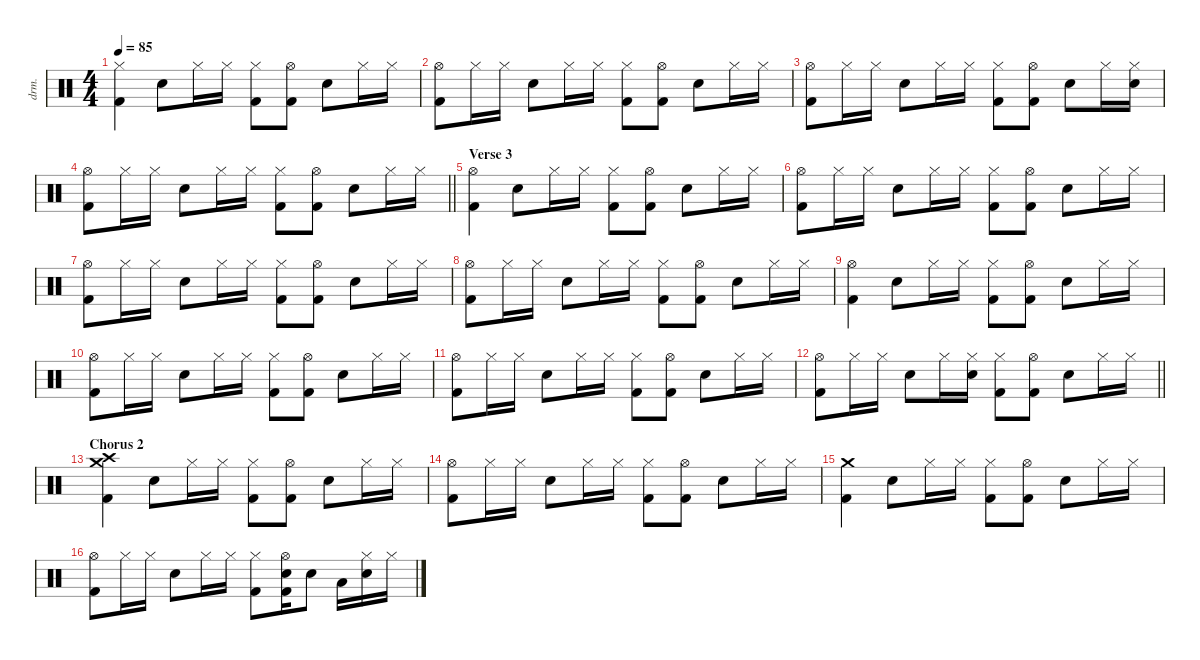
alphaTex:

\defaultSystemsLayout 4
\hideDynamics
\bracketExtendMode nobrackets
\otherSystemsTrackNameOrientation horizontal
\track ("Drums" "drm.") {defaultSystemsLayout 4 instrument percussion}
\staff {score}
\articulation defaults
\ts (4 4)
\tempo 85
\clef neutral
\ks c
("Hi-Hat (closed)" "Kick (hit) 2").4{dy f} "Snare (hit) 2".8 "Hi-Hat (closed)".16 "Hi-Hat (closed)".16 ("Hi-Hat (closed)" "Kick (hit) 2").8 ("Hi-Hat (open)" "Kick (hit) 2").8 "Snare (hit) 2".8 "Hi-Hat (closed)".16 "Hi-Hat (closed)".16 |
("Hi-Hat (open)" "Kick (hit) 2").8 "Hi-Hat (closed)".16 "Hi-Hat (closed)".16 "Snare (hit) 2".8 "Hi-Hat (closed)".16 "Hi-Hat (closed)".16 ("Hi-Hat (closed)" "Kick (hit) 2").8 ("Hi-Hat (open)" "Kick (hit) 2").8 "Snare (hit) 2".8 "Hi-Hat (closed)".16 "Hi-Hat (closed)".16 |
("Hi-Hat (open)" "Kick (hit) 2").8 "Hi-Hat (closed)".16 "Hi-Hat (closed)".16 "Snare (hit) 2".8 "Hi-Hat (closed)".16 "Hi-Hat (closed)".16 ("Hi-Hat (closed)" "Kick (hit) 2").8 ("Hi-Hat (open)" "Kick (hit) 2").8 "Snare (hit) 2".8 "Hi-Hat (closed)".16 ("Hi-Hat (closed)" "Snare (hit) 2").16 |
\barLineRight lightlight
("Hi-Hat (open)" "Kick (hit) 2").8 "Hi-Hat (closed)".16 "Hi-Hat (closed)".16 "Snare (hit) 2".8 "Hi-Hat (closed)".16 "Hi-Hat (closed)".16 ("Hi-Hat (closed)" "Kick (hit) 2").8 ("Hi-Hat (open)" "Kick (hit) 2").8 "Snare (hit) 2".8 "Hi-Hat (closed)".16 "Hi-Hat (closed)".16 |
\section ("" "Verse 3")
("Hi-Hat (open)" "Kick (hit) 2").4 "Snare (hit) 2".8 "Hi-Hat (closed)".16 "Hi-Hat (closed)".16 ("Hi-Hat (closed)" "Kick (hit) 2").8 ("Hi-Hat (open)" "Kick (hit) 2").8 "Snare (hit) 2".8 "Hi-Hat (closed)".16 "Hi-Hat (closed)".16 |
("Hi-Hat (open)" "Kick (hit) 2").8 "Hi-Hat (closed)".16 "Hi-Hat (closed)".16 "Snare (hit) 2".8 "Hi-Hat (closed)".16 "Hi-Hat (closed)".16 ("Hi-Hat (closed)" "Kick (hit) 2").8 ("Hi-Hat (open)" "Kick (hit) 2").8 "Snare (hit) 2".8 "Hi-Hat (closed)".16 "Hi-Hat (closed)".16 |
("Hi-Hat (open)" "Kick (hit) 2").8 "Hi-Hat (closed)".16 "Hi-Hat (closed)".16 "Snare (hit) 2".8 "Hi-Hat (closed)".16 "Hi-Hat (closed)".16 ("Hi-Hat (closed)" "Kick (hit) 2").8 ("Hi-Hat (open)" "Kick (hit) 2").8 "Snare (hit) 2".8 "Hi-Hat (closed)".16 "Hi-Hat (closed)".16 |
("Hi-Hat (open)" "Kick (hit) 2").8 "Hi-Hat (closed)".16 "Hi-Hat (closed)".16 "Snare (hit) 2".8 "Hi-Hat (closed)".16 "Hi-Hat (closed)".16 ("Hi-Hat (closed)" "Kick (hit) 2").8 ("Hi-Hat (open)" "Kick (hit) 2").8 "Snare (hit) 2".8 "Hi-Hat (closed)".16 "Hi-Hat (closed)".16 |
("Hi-Hat (open)" "Kick (hit) 2").4 "Snare (hit) 2".8 "Hi-Hat (closed)".16 "Hi-Hat (closed)".16 ("Hi-Hat (closed)" "Kick (hit) 2").8 ("Hi-Hat (open)" "Kick (hit) 2").8 "Snare (hit) 2".8 "Hi-Hat (closed)".16 "Hi-Hat (closed)".16 |
("Hi-Hat (open)" "Kick (hit) 2").8 "Hi-Hat (closed)".16 "Hi-Hat (closed)".16 "Snare (hit) 2".8 "Hi-Hat (closed)".16 "Hi-Hat (closed)".16 ("Hi-Hat (closed)" "Kick (hit) 2").8 ("Hi-Hat (open)" "Kick (hit) 2").8 "Snare (hit) 2".8 "Hi-Hat (closed)".16 "Hi-Hat (closed)".16 |
("Hi-Hat (open)" "Kick (hit) 2").8 "Hi-Hat (closed)".16 "Hi-Hat (closed)".16 "Snare (hit) 2".8 "Hi-Hat (closed)".16 "Hi-Hat (closed)".16 ("Hi-Hat (closed)" "Kick (hit) 2").8 ("Hi-Hat (open)" "Kick (hit) 2").8 "Snare (hit) 2".8 "Hi-Hat (closed)".16 "Hi-Hat (closed)".16 |
\barLineRight lightlight
("Hi-Hat (open)" "Kick (hit) 2").8 "Hi-Hat (closed)".16 "Hi-Hat (closed)".16 "Snare (hit) 2".8 "Hi-Hat (closed)".16 ("Hi-Hat (closed)" "Snare (hit) 2").16 ("Hi-Hat (closed)" "Kick (hit) 2").8 ("Hi-Hat (open)" "Kick (hit) 2").8 "Snare (hit) 2".8 "Hi-Hat (closed)".16 "Hi-Hat (closed)".16 |
\section ("" "Chorus 2")
("Crash medium (hit)" "Crash high (hit)" "Kick (hit) 2").4 "Snare (hit) 2".8 "Hi-Hat (closed)".16 "Hi-Hat (closed)".16 ("Hi-Hat (closed)" "Kick (hit) 2").8 ("Hi-Hat (open)" "Kick (hit) 2").8 "Snare (hit) 2".8 "Hi-Hat (closed)".16 "Hi-Hat (closed)".16 |
("Hi-Hat (open)" "Kick (hit) 2").8 "Hi-Hat (closed)".16 "Hi-Hat (closed)".16 "Snare (hit) 2".8 "Hi-Hat (closed)".16 "Hi-Hat (closed)".16 ("Hi-Hat (closed)" "Kick (hit) 2").8 ("Hi-Hat (open)" "Kick (hit) 2").8 "Snare (hit) 2".8 "Hi-Hat (closed)".16 "Hi-Hat (closed)".16 |
("Crash medium (hit)" "Kick (hit) 2").4 "Snare (hit) 2".8 "Hi-Hat (closed)".16 "Hi-Hat (closed)".16 ("Hi-Hat (closed)" "Kick (hit) 2").8 ("Hi-Hat (open)" "Kick (hit) 2").8 "Snare (hit) 2".8 "Hi-Hat (closed)".16 "Hi-Hat (closed)".16 |
("Hi-Hat (open)" "Kick (hit) 2").8 "Hi-Hat (closed)".16 "Hi-Hat (closed)".16 "Snare (hit) 2".8 "Hi-Hat (closed)".16 "Hi-Hat (closed)".16 ("Hi-Hat (closed)" "Kick (hit) 2").8 ("Hi-Hat (open)" "Snare (hit) 2" "Kick (hit) 2").16 "Snare (hit) 2".8 "Low Tom (hit)".16 ("Hi-Hat (closed)" "Snare (hit) 2").16 "Hi-Hat (closed)".16
